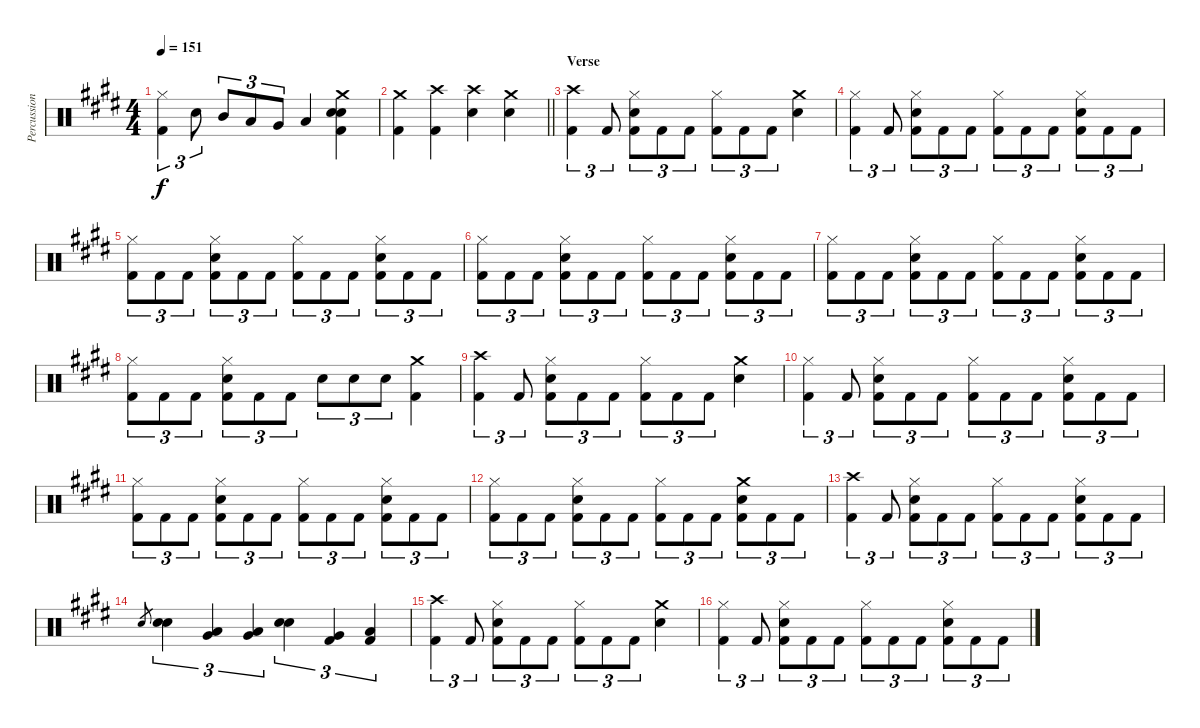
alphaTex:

\track ("Percussion" "Percussion") {instrument percussion}
\staff {score}
\articulation defaults
\ts (4 4)
\tempo 151
\clef neutral
\ks e
("Hi-Hat (closed)" "Kick (hit) 2").4{tu (3 2) dy f} "Snare (hit) 2".8{tu (3 2)} "Mid Tom (hit)".8{tu (3 2)} "Low Tom (hit)".8{tu (3 2)} "Very Low Tom (hit)".8{tu (3 2)} "Low Floor Tom (hit)".4 ("Crash medium (hit)" "Snare (hit) 2" "Snare (hit) 2" "Kick (hit) 2").4 |
\barLineRight lightlight
("Crash medium (hit)" "Kick (hit) 2").4 ("Crash high (hit)" "Kick (hit) 2").4 ("Crash high (hit)" "Snare (hit) 2").4 ("Crash medium (hit)" "Snare (hit) 2").4 |
\section ("" "Verse")
("Crash high (hit)" "Kick (hit) 2").4{tu (3 2)} "Kick (hit) 2".8{tu (3 2)} ("Hi-Hat (closed)" "Snare (hit) 2" "Kick (hit) 2").8{tu (3 2)} "Kick (hit) 2".8{tu (3 2)} "Kick (hit) 2".8{tu (3 2)} ("Hi-Hat (closed)" "Kick (hit) 2").8{tu (3 2)} "Kick (hit) 2".8{tu (3 2)} "Kick (hit) 2".8{tu (3 2)} ("Crash medium (hit)" "Snare (hit) 2").4 |
("Hi-Hat (closed)" "Kick (hit) 2").4{tu (3 2)} "Kick (hit) 2".8{tu (3 2)} ("Hi-Hat (closed)" "Snare (hit) 2" "Kick (hit) 2").8{tu (3 2)} "Kick (hit) 2".8{tu (3 2)} "Kick (hit) 2".8{tu (3 2)} ("Hi-Hat (closed)" "Kick (hit) 2").8{tu (3 2)} "Kick (hit) 2".8{tu (3 2)} "Kick (hit) 2".8{tu (3 2)} ("Hi-Hat (closed)" "Snare (hit) 2" "Kick (hit) 2").8{tu (3 2)} "Kick (hit) 2".8{tu (3 2)} "Kick (hit) 2".8{tu (3 2)} |
("Hi-Hat (closed)" "Kick (hit) 2").8{tu (3 2)} "Kick (hit) 2".8{tu (3 2)} "Kick (hit) 2".8{tu (3 2)} ("Hi-Hat (closed)" "Snare (hit) 2" "Kick (hit) 2").8{tu (3 2)} "Kick (hit) 2".8{tu (3 2)} "Kick (hit) 2".8{tu (3 2)} ("Hi-Hat (closed)" "Kick (hit) 2").8{tu (3 2)} "Kick (hit) 2".8{tu (3 2)} "Kick (hit) 2".8{tu (3 2)} ("Hi-Hat (closed)" "Snare (hit) 2" "Kick (hit) 2").8{tu (3 2)} "Kick (hit) 2".8{tu (3 2)} "Kick (hit) 2".8{tu (3 2)} |
("Hi-Hat (closed)" "Kick (hit) 2").8{tu (3 2)} "Kick (hit) 2".8{tu (3 2)} "Kick (hit) 2".8{tu (3 2)} ("Hi-Hat (closed)" "Snare (hit) 2" "Kick (hit) 2").8{tu (3 2)} "Kick (hit) 2".8{tu (3 2)} "Kick (hit) 2".8{tu (3 2)} ("Hi-Hat (closed)" "Kick (hit) 2").8{tu (3 2)} "Kick (hit) 2".8{tu (3 2)} "Kick (hit) 2".8{tu (3 2)} ("Hi-Hat (closed)" "Snare (hit) 2" "Kick (hit) 2").8{tu (3 2)} "Kick (hit) 2".8{tu (3 2)} "Kick (hit) 2".8{tu (3 2)} |
("Hi-Hat (closed)" "Kick (hit) 2").8{tu (3 2)} "Kick (hit) 2".8{tu (3 2)} "Kick (hit) 2".8{tu (3 2)} ("Hi-Hat (closed)" "Snare (hit) 2" "Kick (hit) 2").8{tu (3 2)} "Kick (hit) 2".8{tu (3 2)} "Kick (hit) 2".8{tu (3 2)} ("Hi-Hat (closed)" "Kick (hit) 2").8{tu (3 2)} "Kick (hit) 2".8{tu (3 2)} "Kick (hit) 2".8{tu (3 2)} ("Hi-Hat (closed)" "Snare (hit) 2" "Kick (hit) 2").8{tu (3 2)} "Kick (hit) 2".8{tu (3 2)} "Kick (hit) 2".8{tu (3 2)} |
("Hi-Hat (closed)" "Kick (hit) 2").8{tu (3 2)} "Kick (hit) 2".8{tu (3 2)} "Kick (hit) 2".8{tu (3 2)} ("Hi-Hat (closed)" "Snare (hit) 2" "Kick (hit) 2").8{tu (3 2)} "Kick (hit) 2".8{tu (3 2)} "Kick (hit) 2".8{tu (3 2)} "Snare (hit) 2".8{tu (3 2)} "Snare (hit) 2".8{tu (3 2)} "Snare (hit) 2".8{tu (3 2)} ("Crash medium (hit)" "Kick (hit) 2").4 |
("Crash high (hit)" "Kick (hit) 2").4{tu (3 2)} "Kick (hit) 2".8{tu (3 2)} ("Hi-Hat (closed)" "Snare (hit) 2" "Kick (hit) 2").8{tu (3 2)} "Kick (hit) 2".8{tu (3 2)} "Kick (hit) 2".8{tu (3 2)} ("Hi-Hat (closed)" "Kick (hit) 2").8{tu (3 2)} "Kick (hit) 2".8{tu (3 2)} "Kick (hit) 2".8{tu (3 2)} ("Crash medium (hit)" "Snare (hit) 2").4 |
("Hi-Hat (closed)" "Kick (hit) 2").4{tu (3 2)} "Kick (hit) 2".8{tu (3 2)} ("Hi-Hat (closed)" "Snare (hit) 2" "Kick (hit) 2").8{tu (3 2)} "Kick (hit) 2".8{tu (3 2)} "Kick (hit) 2".8{tu (3 2)} ("Hi-Hat (closed)" "Kick (hit) 2").8{tu (3 2)} "Kick (hit) 2".8{tu (3 2)} "Kick (hit) 2".8{tu (3 2)} ("Hi-Hat (closed)" "Snare (hit) 2" "Kick (hit) 2").8{tu (3 2)} "Kick (hit) 2".8{tu (3 2)} "Kick (hit) 2".8{tu (3 2)} |
("Hi-Hat (closed)" "Kick (hit) 2").8{tu (3 2)} "Kick (hit) 2".8{tu (3 2)} "Kick (hit) 2".8{tu (3 2)} ("Hi-Hat (closed)" "Snare (hit) 2" "Kick (hit) 2").8{tu (3 2)} "Kick (hit) 2".8{tu (3 2)} "Kick (hit) 2".8{tu (3 2)} ("Hi-Hat (closed)" "Kick (hit) 2").8{tu (3 2)} "Kick (hit) 2".8{tu (3 2)} "Kick (hit) 2".8{tu (3 2)} ("Hi-Hat (closed)" "Snare (hit) 2" "Kick (hit) 2").8{tu (3 2)} "Kick (hit) 2".8{tu (3 2)} "Kick (hit) 2".8{tu (3 2)} |
("Hi-Hat (closed)" "Kick (hit) 2").8{tu (3 2)} "Kick (hit) 2".8{tu (3 2)} "Kick (hit) 2".8{tu (3 2)} ("Hi-Hat (closed)" "Snare (hit) 2" "Kick (hit) 2").8{tu (3 2)} "Kick (hit) 2".8{tu (3 2)} "Kick (hit) 2".8{tu (3 2)} ("Hi-Hat (closed)" "Kick (hit) 2").8{tu (3 2)} "Kick (hit) 2".8{tu (3 2)} "Kick (hit) 2".8{tu (3 2)} ("Crash medium (hit)" "Snare (hit) 2" "Kick (hit) 2").8{tu (3 2)} "Kick (hit) 2".8{tu (3 2)} "Kick (hit) 2".8{tu (3 2)} |
("Crash high (hit)" "Kick (hit) 2").4{tu (3 2)} "Kick (hit) 2".8{tu (3 2)} ("Hi-Hat (closed)" "Snare (hit) 2" "Kick (hit) 2").8{tu (3 2)} "Kick (hit) 2".8{tu (3 2)} "Kick (hit) 2".8{tu (3 2)} ("Hi-Hat (closed)" "Kick (hit) 2").8{tu (3 2)} "Kick (hit) 2".8{tu (3 2)} "Kick (hit) 2".8{tu (3 2)} ("Hi-Hat (closed)" "Snare (hit) 2" "Kick (hit) 2").8{tu (3 2)} "Kick (hit) 2".8{tu (3 2)} "Kick (hit) 2".8{tu (3 2)} |
"Snare (hit) 2".8{gr} ("Snare (hit) 2" "Snare (hit) 2").4{tu (3 2)} ("Low Tom (hit)" "Very Low Tom (hit)").4{tu (3 2)} ("Very Low Tom (hit)" "Low Floor Tom (hit)").4{tu (3 2)} ("Snare (hit) 2" "Snare (hit) 2").4{tu (3 2)} ("Very Low Tom (hit)" "Kick (hit) 2").4{tu (3 2)} ("Low Floor Tom (hit)" "Kick (hit) 2").4{tu (3 2)} |
("Crash high (hit)" "Kick (hit) 2").4{tu (3 2)} "Kick (hit) 2".8{tu (3 2)} ("Hi-Hat (closed)" "Snare (hit) 2" "Kick (hit) 2").8{tu (3 2)} "Kick (hit) 2".8{tu (3 2)} "Kick (hit) 2".8{tu (3 2)} ("Hi-Hat (closed)" "Kick (hit) 2").8{tu (3 2)} "Kick (hit) 2".8{tu (3 2)} "Kick (hit) 2".8{tu (3 2)} ("Crash medium (hit)" "Snare (hit) 2").4 |
("Hi-Hat (closed)" "Kick (hit) 2").4{tu (3 2)} "Kick (hit) 2".8{tu (3 2)} ("Hi-Hat (closed)" "Snare (hit) 2" "Kick (hit) 2").8{tu (3 2)} "Kick (hit) 2".8{tu (3 2)} "Kick (hit) 2".8{tu (3 2)} ("Hi-Hat (closed)" "Kick (hit) 2").8{tu (3 2)} "Kick (hit) 2".8{tu (3 2)} "Kick (hit) 2".8{tu (3 2)} ("Hi-Hat (closed)" "Snare (hit) 2" "Kick (hit) 2").8{tu (3 2)} "Kick (hit) 2".8{tu (3 2)} "Kick (hit) 2".8{tu (3 2)}
